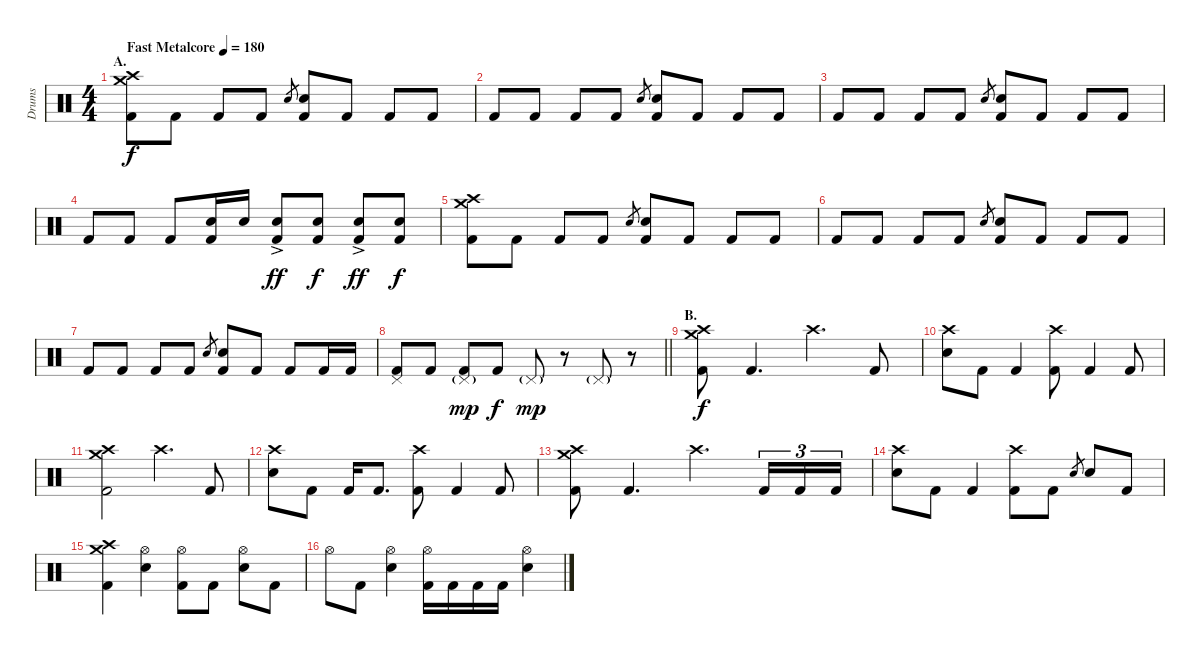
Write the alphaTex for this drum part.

\track ("Drums" "Drums") {instrument percussion}
\staff {score}
\articulation defaults
\ts (4 4)
\section ("" "A.")
\tempo (180 "Fast Metalcore")
\clef neutral
\ks c
("Crash medium (hit)" "Crash high (hit)" "Kick (hit) 2").8{dy f volume 8} "Kick (hit) 2".8 "Kick (hit) 2".8 "Kick (hit) 2".8 "Electric Snare (hit)".8{gr} ("Electric Snare (hit)" "Kick (hit) 2").8 "Kick (hit) 2".8 "Kick (hit) 2".8 "Kick (hit) 2".8 |
"Kick (hit) 2".8 "Kick (hit) 2".8 "Kick (hit) 2".8 "Kick (hit) 2".8 "Electric Snare (hit)".8{gr} ("Electric Snare (hit)" "Kick (hit) 2").8 "Kick (hit) 2".8 "Kick (hit) 2".8 "Kick (hit) 2".8 |
"Kick (hit) 2".8 "Kick (hit) 2".8 "Kick (hit) 2".8 "Kick (hit) 2".8 "Electric Snare (hit)".8{gr} ("Electric Snare (hit)" "Kick (hit) 2").8 "Kick (hit) 2".8 "Kick (hit) 2".8 "Kick (hit) 2".8 |
"Kick (hit) 2".8 "Kick (hit) 2".8 "Kick (hit) 2".8 ("Electric Snare (hit)" "Kick (hit) 2").16 "Electric Snare (hit)".16 ("Electric Snare (hit)"{ac} "Kick (hit) 2").8{dy ff} ("Electric Snare (hit)" "Kick (hit) 2").8{dy f} ("Electric Snare (hit)"{ac} "Kick (hit) 2").8{dy ff} ("Electric Snare (hit)" "Kick (hit) 2").8{dy f} |
("Crash medium (hit)" "Crash high (hit)" "Kick (hit) 2").8 "Kick (hit) 2".8 "Kick (hit) 2".8 "Kick (hit) 2".8 "Electric Snare (hit)".8{gr} ("Electric Snare (hit)" "Kick (hit) 2").8 "Kick (hit) 2".8 "Kick (hit) 2".8 "Kick (hit) 2".8 |
"Kick (hit) 2".8 "Kick (hit) 2".8 "Kick (hit) 2".8 "Kick (hit) 2".8 "Electric Snare (hit)".8{gr} ("Electric Snare (hit)" "Kick (hit) 2").8 "Kick (hit) 2".8 "Kick (hit) 2".8 "Kick (hit) 2".8 |
"Kick (hit) 2".8 "Kick (hit) 2".8 "Kick (hit) 2".8 "Kick (hit) 2".8 "Electric Snare (hit)".8{gr} ("Electric Snare (hit)" "Kick (hit) 2").8 "Kick (hit) 2".8 "Kick (hit) 2".8 "Kick (hit) 2".16{volume 14} "Kick (hit) 2".16 |
\barLineRight lightlight
("Pedal Hi-Hat (hit)" "Kick (hit) 2").8 "Kick (hit) 2".8 ("Pedal Hi-Hat (hit)"{g} "Kick (hit) 2").8{dy mp} "Kick (hit) 2".8{dy f} "Pedal Hi-Hat (hit)"{g}.8{dy mp} r.8 "Pedal Hi-Hat (hit)"{g}.8 r.8 |
\section ("" "B.")
("Crash medium (hit)" "Crash high (hit)" "Kick (hit) 2").8{dy f} "Kick (hit) 2".4{d} "Crash high (hit)".4{d} "Kick (hit) 2".8 |
("Crash high (hit)" "Electric Snare (hit)").8 "Kick (hit) 2".8 "Kick (hit) 2".4 ("Crash high (hit)" "Kick (hit) 2").8 "Kick (hit) 2".4 "Kick (hit) 2".8 |
("Crash medium (hit)" "Crash high (hit)" "Kick (hit) 2").2 "Crash high (hit)".4{d} "Kick (hit) 2".8 |
("Crash high (hit)" "Electric Snare (hit)").8 "Kick (hit) 2".8 "Kick (hit) 2".16 "Kick (hit) 2".8{d} ("Crash high (hit)" "Kick (hit) 2").8 "Kick (hit) 2".4 "Kick (hit) 2".8 |
("Crash medium (hit)" "Crash high (hit)" "Kick (hit) 2").8 "Kick (hit) 2".4{d} "Crash high (hit)".4{d} "Kick (hit) 2".16{tu (3 2)} "Kick (hit) 2".16{tu (3 2)} "Kick (hit) 2".16{tu (3 2)} |
("Crash high (hit)" "Electric Snare (hit)").8 "Kick (hit) 2".8 "Kick (hit) 2".4 ("Crash high (hit)" "Kick (hit) 2").8 "Kick (hit) 2".8 "Electric Snare (hit)".8{gr} "Electric Snare (hit)".8 "Kick (hit) 2".8 |
("Crash medium (hit)" "Crash high (hit)" "Kick (hit) 2").4 ("Hi-Hat (open)" "Electric Snare (hit)").4 ("Hi-Hat (open)" "Kick (hit) 2").8 "Kick (hit) 2".8 ("Hi-Hat (open)" "Electric Snare (hit)").8 "Kick (hit) 2".8 |
"Hi-Hat (open)".8 "Kick (hit) 2".8 ("Hi-Hat (open)" "Electric Snare (hit)").4 ("Hi-Hat (open)" "Kick (hit) 2").16 "Kick (hit) 2".16 "Kick (hit) 2".16 "Kick (hit) 2".16 ("Hi-Hat (open)" "Electric Snare (hit)").4
